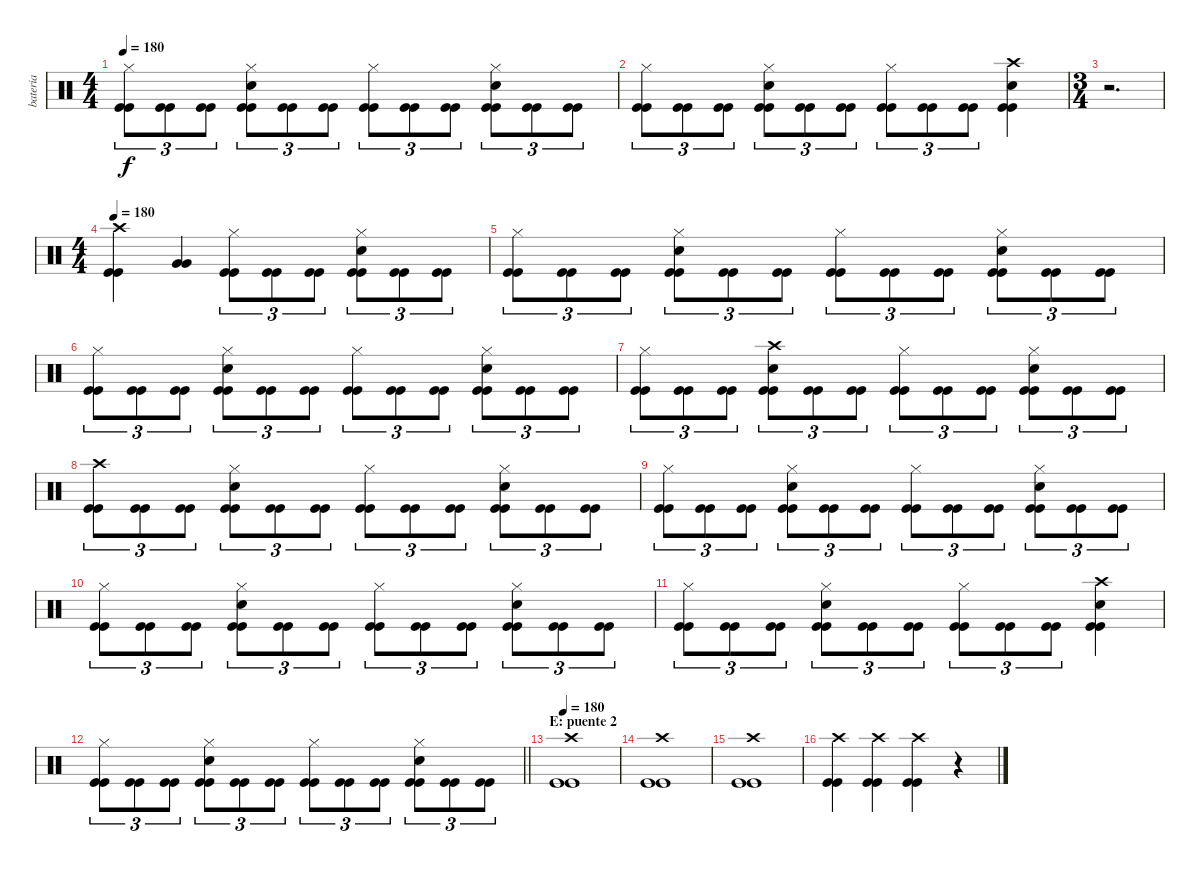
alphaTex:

\track ("bateria" "bateria") {instrument percussion}
\staff {score}
\articulation defaults
\ts (4 4)
\tempo 180
\clef neutral
\ks c
("Hi-Hat (closed)" "Kick (hit)" "Kick (hit)").8{tu (3 2) dy f} ("Kick (hit)" "Kick (hit)").8{tu (3 2)} ("Kick (hit)" "Kick (hit)").8{tu (3 2)} ("Hi-Hat (closed)" "Snare (hit) 2" "Kick (hit)" "Kick (hit)").8{tu (3 2)} ("Kick (hit)" "Kick (hit)").8{tu (3 2)} ("Kick (hit)" "Kick (hit)").8{tu (3 2)} ("Hi-Hat (closed)" "Kick (hit)" "Kick (hit)").8{tu (3 2)} ("Kick (hit)" "Kick (hit)").8{tu (3 2)} ("Kick (hit)" "Kick (hit)").8{tu (3 2)} ("Hi-Hat (closed)" "Snare (hit) 2" "Kick (hit)" "Kick (hit)").8{tu (3 2)} ("Kick (hit)" "Kick (hit)").8{tu (3 2)} ("Kick (hit)" "Kick (hit)").8{tu (3 2)} |
("Hi-Hat (closed)" "Kick (hit)" "Kick (hit)").8{tu (3 2)} ("Kick (hit)" "Kick (hit)").8{tu (3 2)} ("Kick (hit)" "Kick (hit)").8{tu (3 2)} ("Hi-Hat (closed)" "Snare (hit) 2" "Kick (hit)" "Kick (hit)").8{tu (3 2)} ("Kick (hit)" "Kick (hit)").8{tu (3 2)} ("Kick (hit)" "Kick (hit)").8{tu (3 2)} ("Hi-Hat (closed)" "Kick (hit)" "Kick (hit)").8{tu (3 2)} ("Kick (hit)" "Kick (hit)").8{tu (3 2)} ("Kick (hit)" "Kick (hit)").8{tu (3 2)} ("Crash high (hit)" "Snare (hit) 2" "Kick (hit)" "Kick (hit)").4 |
\ts (3 4)
r.2{d} |
\ts (4 4)
\tempo 180
("Crash high (hit)" "Kick (hit)" "Kick (hit)").4 ("Very Low Tom (hit)" "Very Low Tom (hit)").4 ("Hi-Hat (closed)" "Kick (hit)" "Kick (hit)").8{tu (3 2)} ("Kick (hit)" "Kick (hit)").8{tu (3 2)} ("Kick (hit)" "Kick (hit)").8{tu (3 2)} ("Hi-Hat (closed)" "Snare (hit) 2" "Kick (hit)" "Kick (hit)").8{tu (3 2)} ("Kick (hit)" "Kick (hit)").8{tu (3 2)} ("Kick (hit)" "Kick (hit)").8{tu (3 2)} |
("Hi-Hat (closed)" "Kick (hit)" "Kick (hit)").8{tu (3 2)} ("Kick (hit)" "Kick (hit)").8{tu (3 2)} ("Kick (hit)" "Kick (hit)").8{tu (3 2)} ("Hi-Hat (closed)" "Snare (hit) 2" "Kick (hit)" "Kick (hit)").8{tu (3 2)} ("Kick (hit)" "Kick (hit)").8{tu (3 2)} ("Kick (hit)" "Kick (hit)").8{tu (3 2)} ("Hi-Hat (closed)" "Kick (hit)" "Kick (hit)").8{tu (3 2)} ("Kick (hit)" "Kick (hit)").8{tu (3 2)} ("Kick (hit)" "Kick (hit)").8{tu (3 2)} ("Hi-Hat (closed)" "Snare (hit) 2" "Kick (hit)" "Kick (hit)").8{tu (3 2)} ("Kick (hit)" "Kick (hit)").8{tu (3 2)} ("Kick (hit)" "Kick (hit)").8{tu (3 2)} |
("Hi-Hat (closed)" "Kick (hit)" "Kick (hit)").8{tu (3 2)} ("Kick (hit)" "Kick (hit)").8{tu (3 2)} ("Kick (hit)" "Kick (hit)").8{tu (3 2)} ("Hi-Hat (closed)" "Snare (hit) 2" "Kick (hit)" "Kick (hit)").8{tu (3 2)} ("Kick (hit)" "Kick (hit)").8{tu (3 2)} ("Kick (hit)" "Kick (hit)").8{tu (3 2)} ("Hi-Hat (closed)" "Kick (hit)" "Kick (hit)").8{tu (3 2)} ("Kick (hit)" "Kick (hit)").8{tu (3 2)} ("Kick (hit)" "Kick (hit)").8{tu (3 2)} ("Hi-Hat (closed)" "Snare (hit) 2" "Kick (hit)" "Kick (hit)").8{tu (3 2)} ("Kick (hit)" "Kick (hit)").8{tu (3 2)} ("Kick (hit)" "Kick (hit)").8{tu (3 2)} |
("Hi-Hat (closed)" "Kick (hit)" "Kick (hit)").8{tu (3 2)} ("Kick (hit)" "Kick (hit)").8{tu (3 2)} ("Kick (hit)" "Kick (hit)").8{tu (3 2)} ("Crash high (hit)" "Snare (hit) 2" "Kick (hit)" "Kick (hit)").8{tu (3 2)} ("Kick (hit)" "Kick (hit)").8{tu (3 2)} ("Kick (hit)" "Kick (hit)").8{tu (3 2)} ("Hi-Hat (closed)" "Kick (hit)" "Kick (hit)").8{tu (3 2)} ("Kick (hit)" "Kick (hit)").8{tu (3 2)} ("Kick (hit)" "Kick (hit)").8{tu (3 2)} ("Hi-Hat (closed)" "Snare (hit) 2" "Kick (hit)" "Kick (hit)").8{tu (3 2)} ("Kick (hit)" "Kick (hit)").8{tu (3 2)} ("Kick (hit)" "Kick (hit)").8{tu (3 2)} |
("Crash high (hit)" "Kick (hit)" "Kick (hit)").8{tu (3 2)} ("Kick (hit)" "Kick (hit)").8{tu (3 2)} ("Kick (hit)" "Kick (hit)").8{tu (3 2)} ("Hi-Hat (closed)" "Snare (hit) 2" "Kick (hit)" "Kick (hit)").8{tu (3 2)} ("Kick (hit)" "Kick (hit)").8{tu (3 2)} ("Kick (hit)" "Kick (hit)").8{tu (3 2)} ("Hi-Hat (closed)" "Kick (hit)" "Kick (hit)").8{tu (3 2)} ("Kick (hit)" "Kick (hit)").8{tu (3 2)} ("Kick (hit)" "Kick (hit)").8{tu (3 2)} ("Hi-Hat (closed)" "Snare (hit) 2" "Kick (hit)" "Kick (hit)").8{tu (3 2)} ("Kick (hit)" "Kick (hit)").8{tu (3 2)} ("Kick (hit)" "Kick (hit)").8{tu (3 2)} |
("Hi-Hat (closed)" "Kick (hit)" "Kick (hit)").8{tu (3 2)} ("Kick (hit)" "Kick (hit)").8{tu (3 2)} ("Kick (hit)" "Kick (hit)").8{tu (3 2)} ("Hi-Hat (closed)" "Snare (hit) 2" "Kick (hit)" "Kick (hit)").8{tu (3 2)} ("Kick (hit)" "Kick (hit)").8{tu (3 2)} ("Kick (hit)" "Kick (hit)").8{tu (3 2)} ("Hi-Hat (closed)" "Kick (hit)" "Kick (hit)").8{tu (3 2)} ("Kick (hit)" "Kick (hit)").8{tu (3 2)} ("Kick (hit)" "Kick (hit)").8{tu (3 2)} ("Hi-Hat (closed)" "Snare (hit) 2" "Kick (hit)" "Kick (hit)").8{tu (3 2)} ("Kick (hit)" "Kick (hit)").8{tu (3 2)} ("Kick (hit)" "Kick (hit)").8{tu (3 2)} |
("Hi-Hat (closed)" "Kick (hit)" "Kick (hit)").8{tu (3 2)} ("Kick (hit)" "Kick (hit)").8{tu (3 2)} ("Kick (hit)" "Kick (hit)").8{tu (3 2)} ("Hi-Hat (closed)" "Snare (hit) 2" "Kick (hit)" "Kick (hit)").8{tu (3 2)} ("Kick (hit)" "Kick (hit)").8{tu (3 2)} ("Kick (hit)" "Kick (hit)").8{tu (3 2)} ("Hi-Hat (closed)" "Kick (hit)" "Kick (hit)").8{tu (3 2)} ("Kick (hit)" "Kick (hit)").8{tu (3 2)} ("Kick (hit)" "Kick (hit)").8{tu (3 2)} ("Hi-Hat (closed)" "Snare (hit) 2" "Kick (hit)" "Kick (hit)").8{tu (3 2)} ("Kick (hit)" "Kick (hit)").8{tu (3 2)} ("Kick (hit)" "Kick (hit)").8{tu (3 2)} |
("Hi-Hat (closed)" "Kick (hit)" "Kick (hit)").8{tu (3 2)} ("Kick (hit)" "Kick (hit)").8{tu (3 2)} ("Kick (hit)" "Kick (hit)").8{tu (3 2)} ("Hi-Hat (closed)" "Snare (hit) 2" "Kick (hit)" "Kick (hit)").8{tu (3 2)} ("Kick (hit)" "Kick (hit)").8{tu (3 2)} ("Kick (hit)" "Kick (hit)").8{tu (3 2)} ("Hi-Hat (closed)" "Kick (hit)" "Kick (hit)").8{tu (3 2)} ("Kick (hit)" "Kick (hit)").8{tu (3 2)} ("Kick (hit)" "Kick (hit)").8{tu (3 2)} ("Crash high (hit)" "Snare (hit) 2" "Kick (hit)" "Kick (hit)").4 |
\barLineRight lightlight
("Hi-Hat (closed)" "Kick (hit)" "Kick (hit)").8{tu (3 2)} ("Kick (hit)" "Kick (hit)").8{tu (3 2)} ("Kick (hit)" "Kick (hit)").8{tu (3 2)} ("Hi-Hat (closed)" "Snare (hit) 2" "Kick (hit)" "Kick (hit)").8{tu (3 2)} ("Kick (hit)" "Kick (hit)").8{tu (3 2)} ("Kick (hit)" "Kick (hit)").8{tu (3 2)} ("Hi-Hat (closed)" "Kick (hit)" "Kick (hit)").8{tu (3 2)} ("Kick (hit)" "Kick (hit)").8{tu (3 2)} ("Kick (hit)" "Kick (hit)").8{tu (3 2)} ("Hi-Hat (closed)" "Snare (hit) 2" "Kick (hit)" "Kick (hit)").8{tu (3 2)} ("Kick (hit)" "Kick (hit)").8{tu (3 2)} ("Kick (hit)" "Kick (hit)").8{tu (3 2)} |
\section ("" "E: puente 2")
\tempo 180
("Crash high (hit)" "Kick (hit)" "Kick (hit)").1 |
("Crash high (hit)" "Kick (hit)" "Kick (hit)").1 |
("Crash high (hit)" "Kick (hit)" "Kick (hit)").1 |
("Crash high (hit)" "Kick (hit)" "Kick (hit)").4 ("Crash high (hit)" "Kick (hit)" "Kick (hit)").4 ("Crash high (hit)" "Kick (hit)" "Kick (hit)").4 r.4
